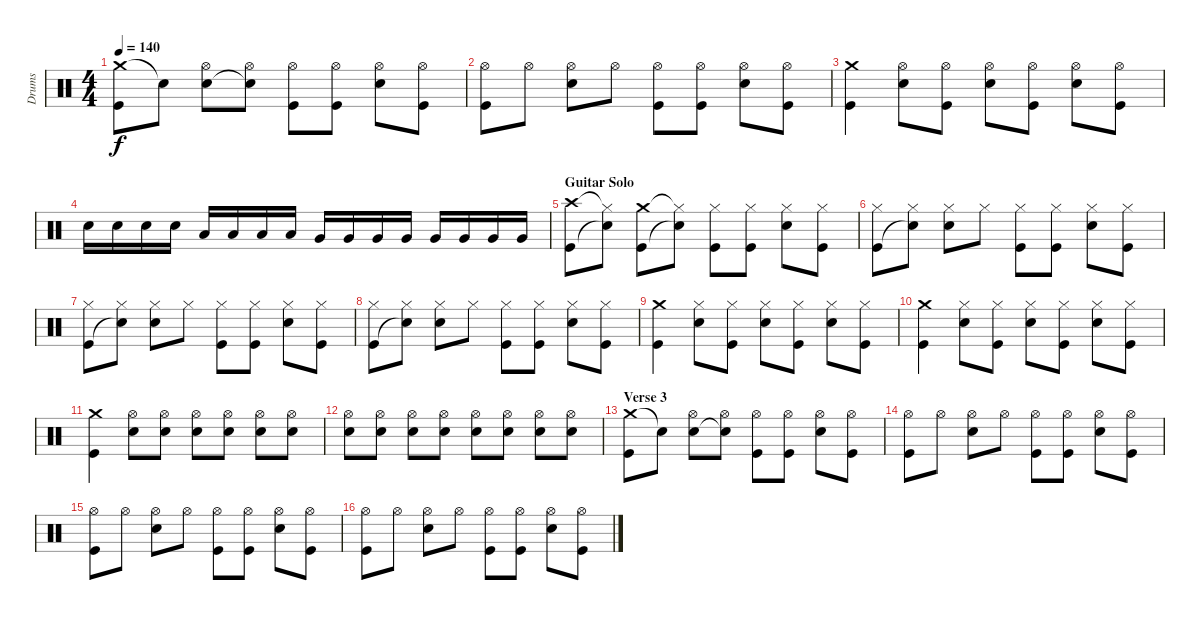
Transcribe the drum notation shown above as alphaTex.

\track ("Drums" "Drums") {instrument percussion}
\staff {score}
\articulation defaults
\ts (4 4)
\tempo 140
\clef neutral
\ks c
("Crash medium (hit)" "Kick (hit)").8{dy f} "Snare (hit)"{t}.8 ("Hi-Hat (open)" "Snare (hit) 2").8 ("Hi-Hat (open)" "Snare (hit)"{t}).8 ("Hi-Hat (open)" "Kick (hit)").8 ("Hi-Hat (open)" "Kick (hit)").8 ("Hi-Hat (open)" "Snare (hit) 2").8 ("Hi-Hat (open)" "Kick (hit)").8 |
("Hi-Hat (open)" "Kick (hit)").8 "Hi-Hat (open)".8 ("Hi-Hat (open)" "Snare (hit) 2").8 "Hi-Hat (open)".8 ("Hi-Hat (open)" "Kick (hit)").8 ("Hi-Hat (open)" "Kick (hit)").8 ("Hi-Hat (open)" "Snare (hit) 2").8 ("Hi-Hat (open)" "Kick (hit)").8 |
("Crash medium (hit)" "Kick (hit)").4 ("Hi-Hat (open)" "Snare (hit) 2").8 ("Hi-Hat (open)" "Kick (hit)").8 ("Hi-Hat (open)" "Snare (hit) 2").8 ("Hi-Hat (open)" "Kick (hit)").8 ("Hi-Hat (open)" "Snare (hit) 2").8 ("Hi-Hat (open)" "Kick (hit)").8 |
"Snare (hit) 2".16 "Snare (hit) 2".16 "Snare (hit) 2".16 "Snare (hit) 2".16 "Low Tom (hit)".16 "Low Tom (hit)".16 "Low Tom (hit)".16 "Low Tom (hit)".16 "Very Low Tom (hit)".16 "Very Low Tom (hit)".16 "Very Low Tom (hit)".16 "Very Low Tom (hit)".16 "Very Low Tom (hit)".16 "Very Low Tom (hit)".16 "Very Low Tom (hit)".16 "Very Low Tom (hit)".16 |
\section ("" "Guitar Solo")
("Crash high (hit)" "Kick (hit)").8 ("Hi-Hat (closed)"{t} "Snare (hit)"{t}).8 ("Crash medium (hit)" "Kick (hit)").8 ("Hi-Hat (closed)"{t} "Snare (hit)"{t}).8 ("Hi-Hat (closed)" "Kick (hit)").8 ("Hi-Hat (closed)" "Kick (hit)").8 ("Hi-Hat (closed)" "Snare (hit) 2").8 ("Hi-Hat (closed)" "Kick (hit)").8 |
("Hi-Hat (closed)" "Kick (hit)").8 ("Hi-Hat (closed)" "Snare (hit)"{t}).8 ("Hi-Hat (closed)" "Snare (hit) 2").8 "Hi-Hat (closed)".8 ("Hi-Hat (closed)" "Kick (hit)").8 ("Hi-Hat (closed)" "Kick (hit)").8 ("Hi-Hat (closed)" "Snare (hit) 2").8 ("Hi-Hat (closed)" "Kick (hit)").8 |
("Hi-Hat (closed)" "Kick (hit)").8 ("Hi-Hat (closed)" "Snare (hit)"{t}).8 ("Hi-Hat (closed)" "Snare (hit) 2").8 "Hi-Hat (closed)".8 ("Hi-Hat (closed)" "Kick (hit)").8 ("Hi-Hat (closed)" "Kick (hit)").8 ("Hi-Hat (closed)" "Snare (hit) 2").8 ("Hi-Hat (closed)" "Kick (hit)").8 |
("Hi-Hat (closed)" "Kick (hit)").8 ("Hi-Hat (closed)" "Snare (hit)"{t}).8 ("Hi-Hat (closed)" "Snare (hit) 2").8 "Hi-Hat (closed)".8 ("Hi-Hat (closed)" "Kick (hit)").8 ("Hi-Hat (closed)" "Kick (hit)").8 ("Hi-Hat (closed)" "Snare (hit) 2").8 ("Hi-Hat (closed)" "Kick (hit)").8 |
("Crash medium (hit)" "Kick (hit)").4 ("Hi-Hat (closed)" "Snare (hit) 2").8 ("Hi-Hat (closed)" "Kick (hit)").8 ("Hi-Hat (closed)" "Snare (hit) 2").8 ("Hi-Hat (closed)" "Kick (hit)").8 ("Hi-Hat (closed)" "Snare (hit) 2").8 ("Hi-Hat (closed)" "Kick (hit)").8 |
("Crash medium (hit)" "Kick (hit)").4 ("Hi-Hat (closed)" "Snare (hit) 2").8 ("Hi-Hat (closed)" "Kick (hit)").8 ("Hi-Hat (closed)" "Snare (hit) 2").8 ("Hi-Hat (closed)" "Kick (hit)").8 ("Hi-Hat (closed)" "Snare (hit) 2").8 ("Hi-Hat (closed)" "Kick (hit)").8 |
("Crash medium (hit)" "Kick (hit)").4 ("Hi-Hat (open)" "Snare (hit) 2").8 ("Hi-Hat (open)" "Snare (hit) 2").8 ("Hi-Hat (open)" "Snare (hit) 2").8 ("Hi-Hat (open)" "Snare (hit) 2").8 ("Hi-Hat (open)" "Snare (hit) 2").8 ("Hi-Hat (open)" "Snare (hit) 2").8 |
("Hi-Hat (open)" "Snare (hit) 2").8 ("Hi-Hat (open)" "Snare (hit) 2").8 ("Hi-Hat (open)" "Snare (hit) 2").8 ("Hi-Hat (open)" "Snare (hit) 2").8 ("Hi-Hat (open)" "Snare (hit) 2").8 ("Hi-Hat (open)" "Snare (hit) 2").8 ("Hi-Hat (open)" "Snare (hit) 2").8 ("Hi-Hat (open)" "Snare (hit) 2").8 |
\section ("" "Verse 3")
("Crash medium (hit)" "Kick (hit)").8 "Snare (hit)"{t}.8 ("Hi-Hat (open)" "Snare (hit) 2").8 ("Hi-Hat (open)" "Snare (hit)"{t}).8 ("Hi-Hat (open)" "Kick (hit)").8 ("Hi-Hat (open)" "Kick (hit)").8 ("Hi-Hat (open)" "Snare (hit) 2").8 ("Hi-Hat (open)" "Kick (hit)").8 |
("Hi-Hat (open)" "Kick (hit)").8 "Hi-Hat (open)".8 ("Hi-Hat (open)" "Snare (hit) 2").8 "Hi-Hat (open)".8 ("Hi-Hat (open)" "Kick (hit)").8 ("Hi-Hat (open)" "Kick (hit)").8 ("Hi-Hat (open)" "Snare (hit) 2").8 ("Hi-Hat (open)" "Kick (hit)").8 |
("Hi-Hat (open)" "Kick (hit)").8 "Hi-Hat (open)".8 ("Hi-Hat (open)" "Snare (hit) 2").8 "Hi-Hat (open)".8 ("Hi-Hat (open)" "Kick (hit)").8 ("Hi-Hat (open)" "Kick (hit)").8 ("Hi-Hat (open)" "Snare (hit) 2").8 ("Hi-Hat (open)" "Kick (hit)").8 |
("Hi-Hat (open)" "Kick (hit)").8 "Hi-Hat (open)".8 ("Hi-Hat (open)" "Snare (hit) 2").8 "Hi-Hat (open)".8 ("Hi-Hat (open)" "Kick (hit)").8 ("Hi-Hat (open)" "Kick (hit)").8 ("Hi-Hat (open)" "Snare (hit) 2").8 ("Hi-Hat (open)" "Kick (hit)").8
